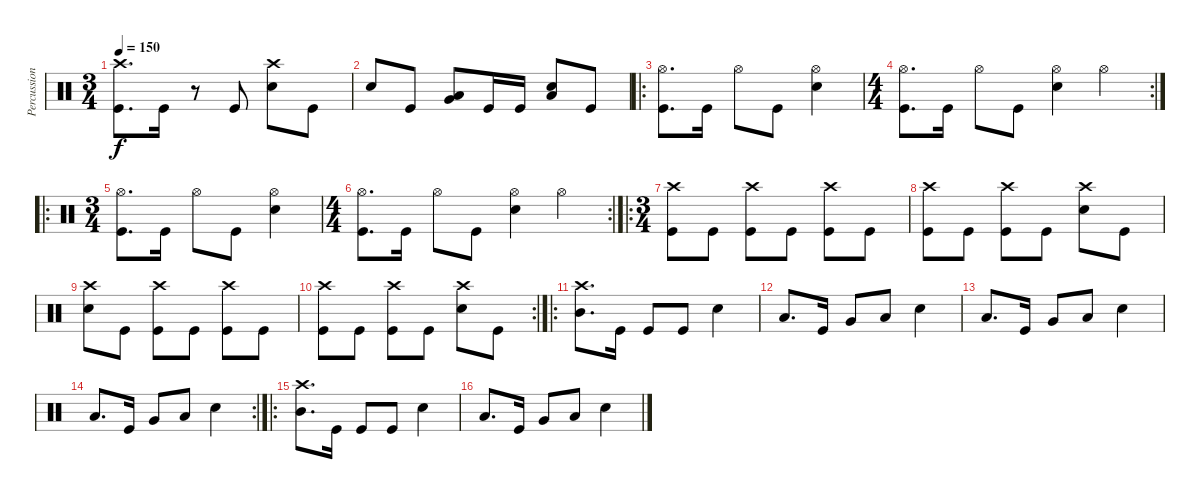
\track ("Percussion" "Percussion") {instrument percussion}
\staff {score}
\articulation defaults
\ts (3 4)
\tempo 150
\clef neutral
\ks c
("Crash high (hit)" "Kick (hit)").8{d dy f} "Kick (hit)".16 r.8 "Kick (hit)".8 ("Crash high (hit)" "Snare (hit) 2").8 "Kick (hit)".8 |
"Snare (hit) 2".8 "Kick (hit)".8 ("Low Tom (hit)" "Very Low Tom (hit)").8 "Kick (hit)".16 "Kick (hit)".16 ("Low Floor Tom (hit)" "Snare (hit) 2").8 "Kick (hit)".8 |
\ro
("Hi-Hat (open)" "Kick (hit)").8{d} "Kick (hit)".16 "Hi-Hat (open)".8 "Kick (hit)".8 ("Hi-Hat (open)" "Snare (hit) 2").4 |
\rc 2
\ts (4 4)
("Hi-Hat (open)" "Kick (hit)").8{d} "Kick (hit)".16 "Hi-Hat (open)".8 "Kick (hit)".8 ("Hi-Hat (open)" "Snare (hit) 2").4 "Hi-Hat (open)".4 |
\ro
\ts (3 4)
("Hi-Hat (open)" "Kick (hit)").8{d} "Kick (hit)".16 "Hi-Hat (open)".8 "Kick (hit)".8 ("Hi-Hat (open)" "Snare (hit) 2").4 |
\rc 2
\ts (4 4)
("Hi-Hat (open)" "Kick (hit)").8{d} "Kick (hit)".16 "Hi-Hat (open)".8 "Kick (hit)".8 ("Hi-Hat (open)" "Snare (hit) 2").4 "Hi-Hat (open)".4 |
\ro
\ts (3 4)
("Crash high (hit)" "Kick (hit)").8 "Kick (hit)".8 ("Crash high (hit)" "Kick (hit)").8 "Kick (hit)".8 ("Crash high (hit)" "Kick (hit)").8 "Kick (hit)".8 |
("Crash high (hit)" "Kick (hit)").8 "Kick (hit)".8 ("Crash high (hit)" "Kick (hit)").8 "Kick (hit)".8 ("Crash high (hit)" "Snare (hit) 2").8 "Kick (hit)".8 |
("Crash high (hit)" "Snare (hit) 2").8 "Kick (hit)".8 ("Crash high (hit)" "Kick (hit)").8 "Kick (hit)".8 ("Crash high (hit)" "Kick (hit)").8 "Kick (hit)".8 |
\rc 2
("Crash high (hit)" "Kick (hit)").8 "Kick (hit)".8 ("Crash high (hit)" "Kick (hit)").8 "Kick (hit)".8 ("Crash high (hit)" "Snare (hit) 2").8 "Kick (hit)".8 |
\ro
("Crash high (hit)" "Mid Tom (hit)").8{d} "Kick (hit)".16 "Kick (hit)".8 "Kick (hit)".8 "Snare (hit) 2".4 |
"Low Tom (hit)".8{d} "Kick (hit)".16 "Very Low Tom (hit)".8 "Low Floor Tom (hit)".8 "Snare (hit) 2".4 |
"Low Tom (hit)".8{d} "Kick (hit)".16 "Very Low Tom (hit)".8 "Low Floor Tom (hit)".8 "Snare (hit) 2".4 |
\rc 2 "Low Tom (hit)".8{d} "Kick (hit)".16 "Very Low Tom (hit)".8 "Low Floor Tom (hit)".8 "Snare (hit) 2".4
|
\ro
("Crash high (hit)" "Mid Tom (hit)").8{d} "Kick (hit)".16 "Kick (hit)".8 "Kick (hit)".8 "Snare (hit) 2".4 |
"Low Tom (hit)".8{d} "Kick (hit)".16 "Very Low Tom (hit)".8 "Low Floor Tom (hit)".8 "Snare (hit) 2".4
